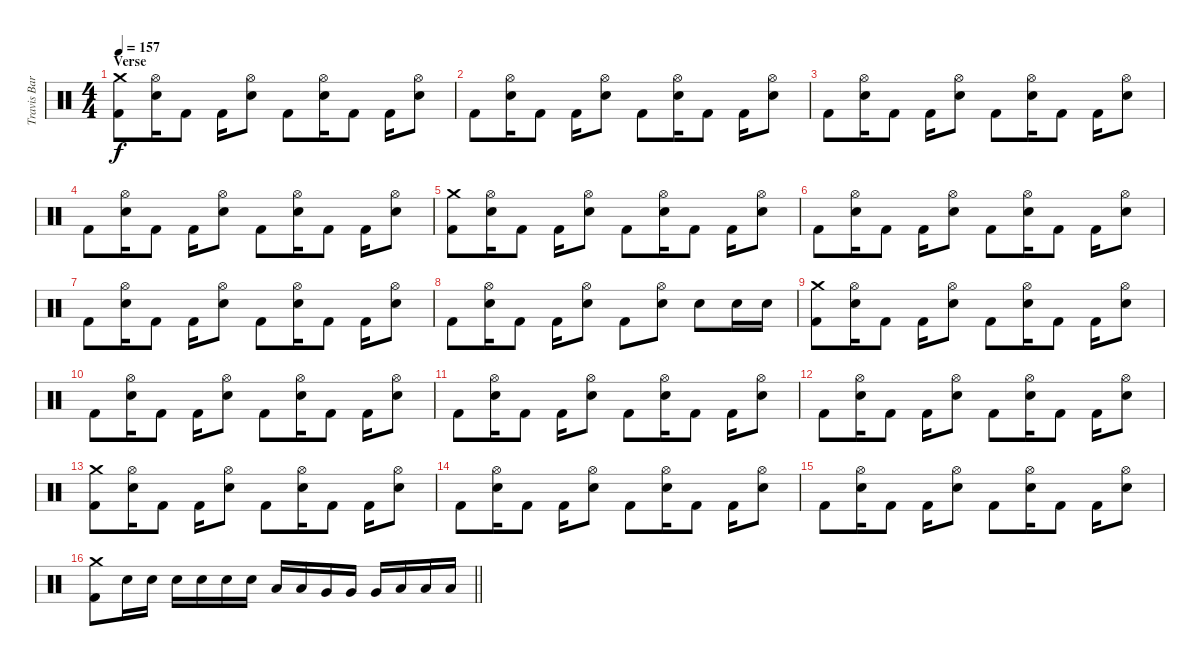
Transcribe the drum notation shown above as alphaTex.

\track ("Travis Barker - Drums" "Travis Bar") {instrument percussion}
\staff {score}
\articulation defaults
\ts (4 4)
\section ("" "Verse")
\tempo 157
\clef neutral
\ks c
("Crash medium (hit)" "Kick (hit) 2").8{dy f} ("Hi-Hat (open)" "Electric Snare (hit)").16 "Kick (hit) 2".8 "Kick (hit) 2".16 ("Hi-Hat (open)" "Electric Snare (hit)").8 "Kick (hit) 2".8 ("Hi-Hat (open)" "Electric Snare (hit)").16 "Kick (hit) 2".8 "Kick (hit) 2".16 ("Hi-Hat (open)" "Electric Snare (hit)").8 |
"Kick (hit) 2".8 ("Hi-Hat (open)" "Electric Snare (hit)").16 "Kick (hit) 2".8 "Kick (hit) 2".16 ("Hi-Hat (open)" "Electric Snare (hit)").8 "Kick (hit) 2".8 ("Hi-Hat (open)" "Electric Snare (hit)").16 "Kick (hit) 2".8 "Kick (hit) 2".16 ("Hi-Hat (open)" "Electric Snare (hit)").8 |
"Kick (hit) 2".8 ("Hi-Hat (open)" "Electric Snare (hit)").16 "Kick (hit) 2".8 "Kick (hit) 2".16 ("Hi-Hat (open)" "Electric Snare (hit)").8 "Kick (hit) 2".8 ("Hi-Hat (open)" "Electric Snare (hit)").16 "Kick (hit) 2".8 "Kick (hit) 2".16 ("Hi-Hat (open)" "Electric Snare (hit)").8 |
"Kick (hit) 2".8 ("Hi-Hat (open)" "Electric Snare (hit)").16 "Kick (hit) 2".8 "Kick (hit) 2".16 ("Hi-Hat (open)" "Electric Snare (hit)").8 "Kick (hit) 2".8 ("Hi-Hat (open)" "Electric Snare (hit)").16 "Kick (hit) 2".8 "Kick (hit) 2".16 ("Hi-Hat (open)" "Electric Snare (hit)").8 |
("Crash medium (hit)" "Kick (hit) 2").8 ("Hi-Hat (open)" "Electric Snare (hit)").16 "Kick (hit) 2".8 "Kick (hit) 2".16 ("Hi-Hat (open)" "Electric Snare (hit)").8 "Kick (hit) 2".8 ("Hi-Hat (open)" "Electric Snare (hit)").16 "Kick (hit) 2".8 "Kick (hit) 2".16 ("Hi-Hat (open)" "Electric Snare (hit)").8 |
"Kick (hit) 2".8 ("Hi-Hat (open)" "Electric Snare (hit)").16 "Kick (hit) 2".8 "Kick (hit) 2".16 ("Hi-Hat (open)" "Electric Snare (hit)").8 "Kick (hit) 2".8 ("Hi-Hat (open)" "Electric Snare (hit)").16 "Kick (hit) 2".8 "Kick (hit) 2".16 ("Hi-Hat (open)" "Electric Snare (hit)").8 |
"Kick (hit) 2".8 ("Hi-Hat (open)" "Electric Snare (hit)").16 "Kick (hit) 2".8 "Kick (hit) 2".16 ("Hi-Hat (open)" "Electric Snare (hit)").8 "Kick (hit) 2".8 ("Hi-Hat (open)" "Electric Snare (hit)").16 "Kick (hit) 2".8 "Kick (hit) 2".16 ("Hi-Hat (open)" "Electric Snare (hit)").8 |
"Kick (hit) 2".8 ("Hi-Hat (open)" "Electric Snare (hit)").16 "Kick (hit) 2".8 "Kick (hit) 2".16 ("Hi-Hat (open)" "Electric Snare (hit)").8 "Kick (hit) 2".8 ("Hi-Hat (open)" "Electric Snare (hit)").8 "Electric Snare (hit)".8 "Electric Snare (hit)".16 "Electric Snare (hit)".16 |
("Crash medium (hit)" "Kick (hit) 2").8 ("Hi-Hat (open)" "Electric Snare (hit)").16 "Kick (hit) 2".8 "Kick (hit) 2".16 ("Hi-Hat (open)" "Electric Snare (hit)").8 "Kick (hit) 2".8 ("Hi-Hat (open)" "Electric Snare (hit)").16 "Kick (hit) 2".8 "Kick (hit) 2".16 ("Hi-Hat (open)" "Electric Snare (hit)").8 |
"Kick (hit) 2".8 ("Hi-Hat (open)" "Electric Snare (hit)").16 "Kick (hit) 2".8 "Kick (hit) 2".16 ("Hi-Hat (open)" "Electric Snare (hit)").8 "Kick (hit) 2".8 ("Hi-Hat (open)" "Electric Snare (hit)").16 "Kick (hit) 2".8 "Kick (hit) 2".16 ("Hi-Hat (open)" "Electric Snare (hit)").8 |
"Kick (hit) 2".8 ("Hi-Hat (open)" "Electric Snare (hit)").16 "Kick (hit) 2".8 "Kick (hit) 2".16 ("Hi-Hat (open)" "Electric Snare (hit)").8 "Kick (hit) 2".8 ("Hi-Hat (open)" "Electric Snare (hit)").16 "Kick (hit) 2".8 "Kick (hit) 2".16 ("Hi-Hat (open)" "Electric Snare (hit)").8 |
"Kick (hit) 2".8 ("Hi-Hat (open)" "Electric Snare (hit)").16 "Kick (hit) 2".8 "Kick (hit) 2".16 ("Hi-Hat (open)" "Electric Snare (hit)").8 "Kick (hit) 2".8 ("Hi-Hat (open)" "Electric Snare (hit)").16 "Kick (hit) 2".8 "Kick (hit) 2".16 ("Hi-Hat (open)" "Electric Snare (hit)").8 |
("Crash medium (hit)" "Kick (hit) 2").8 ("Hi-Hat (open)" "Electric Snare (hit)").16 "Kick (hit) 2".8 "Kick (hit) 2".16 ("Hi-Hat (open)" "Electric Snare (hit)").8 "Kick (hit) 2".8 ("Hi-Hat (open)" "Electric Snare (hit)").16 "Kick (hit) 2".8 "Kick (hit) 2".16 ("Hi-Hat (open)" "Electric Snare (hit)").8 |
"Kick (hit) 2".8 ("Hi-Hat (open)" "Electric Snare (hit)").16 "Kick (hit) 2".8 "Kick (hit) 2".16 ("Hi-Hat (open)" "Electric Snare (hit)").8 "Kick (hit) 2".8 ("Hi-Hat (open)" "Electric Snare (hit)").16 "Kick (hit) 2".8 "Kick (hit) 2".16 ("Hi-Hat (open)" "Electric Snare (hit)").8 |
"Kick (hit) 2".8 ("Hi-Hat (open)" "Electric Snare (hit)").16 "Kick (hit) 2".8 "Kick (hit) 2".16 ("Hi-Hat (open)" "Electric Snare (hit)").8 "Kick (hit) 2".8 ("Hi-Hat (open)" "Electric Snare (hit)").16 "Kick (hit) 2".8 "Kick (hit) 2".16 ("Hi-Hat (open)" "Electric Snare (hit)").8 |
\barLineRight lightlight
("Crash medium (hit)" "Kick (hit) 2").8 "Electric Snare (hit)".16 "Electric Snare (hit)".16 "Electric Snare (hit)".16 "Electric Snare (hit)".16 "Electric Snare (hit)".16 "Electric Snare (hit)".16 "Low Tom (hit)".16 "Low Tom (hit)".16 "Very Low Tom (hit)".16 "Very Low Tom (hit)".16 "Very Low Tom (hit)".16 "Low Floor Tom (hit)".16 "Low Floor Tom (hit)".16 "Low Floor Tom (hit)".16
